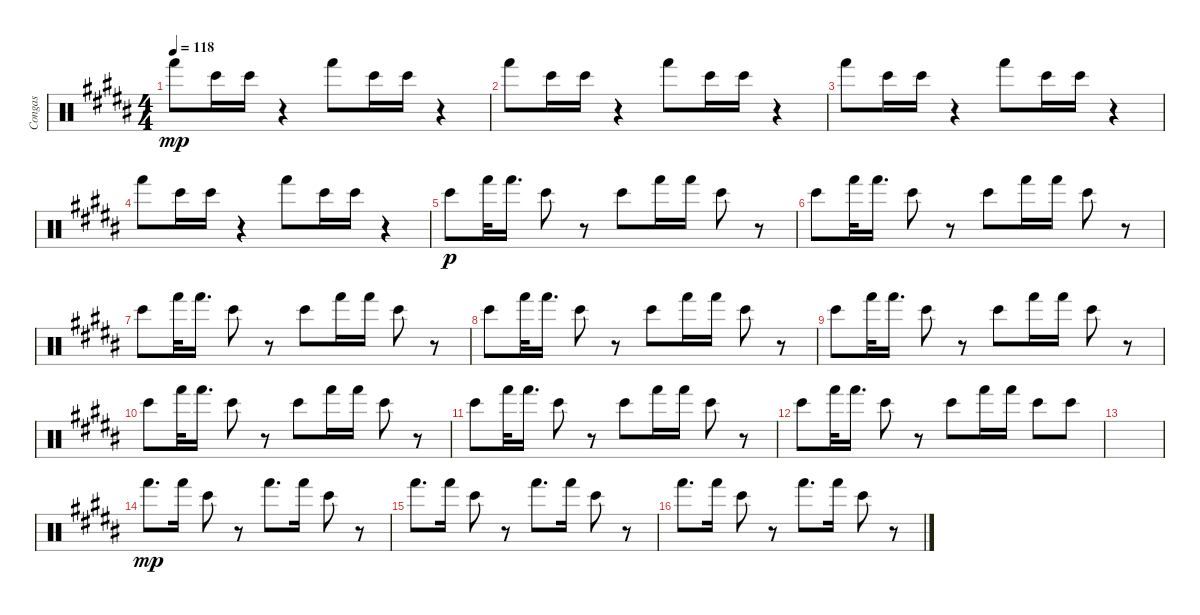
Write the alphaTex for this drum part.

\track ("Congas" "Congas") {instrument percussion}
\staff {score}
\articulation defaults
\ts (4 4)
\tempo 118
\clef neutral
\ks b "Hand (hit)".8{dy mp} "Bongo High (hit)".16 "Bongo High (hit)".16
r.4 "Hand (hit)".8 "Bongo High (hit)".16 "Bongo High (hit)".16 r.4 |
"Hand (hit)".8 "Bongo High (hit)".16 "Bongo High (hit)".16 r.4 "Hand (hit)".8 "Bongo High (hit)".16 "Bongo High (hit)".16 r.4 |
"Hand (hit)".8 "Bongo High (hit)".16 "Bongo High (hit)".16 r.4 "Hand (hit)".8 "Bongo High (hit)".16 "Bongo High (hit)".16 r.4 |
"Hand (hit)".8 "Bongo High (hit)".16 "Bongo High (hit)".16 r.4 "Hand (hit)".8 "Bongo High (hit)".16 "Bongo High (hit)".16 r.4 |
"Bongo High (hit)".8{dy p} "Hand (hit)".32 "Hand (hit)".16{d} "Bongo High (hit)".8 r.8 "Bongo High (hit)".8 "Hand (hit)".16 "Hand (hit)".16 "Bongo High (hit)".8 r.8 |
"Bongo High (hit)".8 "Hand (hit)".32 "Hand (hit)".16{d} "Bongo High (hit)".8 r.8 "Bongo High (hit)".8 "Hand (hit)".16 "Hand (hit)".16 "Bongo High (hit)".8 r.8 |
"Bongo High (hit)".8 "Hand (hit)".32 "Hand (hit)".16{d} "Bongo High (hit)".8 r.8 "Bongo High (hit)".8 "Hand (hit)".16 "Hand (hit)".16 "Bongo High (hit)".8 r.8 |
"Bongo High (hit)".8 "Hand (hit)".32 "Hand (hit)".16{d} "Bongo High (hit)".8 r.8 "Bongo High (hit)".8 "Hand (hit)".16 "Hand (hit)".16 "Bongo High (hit)".8 r.8 |
"Bongo High (hit)".8 "Hand (hit)".32 "Hand (hit)".16{d} "Bongo High (hit)".8 r.8 "Bongo High (hit)".8 "Hand (hit)".16 "Hand (hit)".16 "Bongo High (hit)".8 r.8 |
"Bongo High (hit)".8 "Hand (hit)".32 "Hand (hit)".16{d} "Bongo High (hit)".8 r.8 "Bongo High (hit)".8 "Hand (hit)".16 "Hand (hit)".16 "Bongo High (hit)".8 r.8 |
"Bongo High (hit)".8 "Hand (hit)".32 "Hand (hit)".16{d} "Bongo High (hit)".8 r.8 "Bongo High (hit)".8 "Hand (hit)".16 "Hand (hit)".16 "Bongo High (hit)".8 r.8 |
"Bongo High (hit)".8 "Hand (hit)".32 "Hand (hit)".16{d} "Bongo High (hit)".8 r.8 "Bongo High (hit)".8 "Hand (hit)".16 "Hand (hit)".16 "Bongo High (hit)".8 "Bongo High (hit)".8 |
|
"Hand (hit)".8{d dy mp} "Hand (hit)".16 "Bongo High (hit)".8 r.8 "Hand (hit)".8{d} "Hand (hit)".16 "Bongo High (hit)".8 r.8 |
"Hand (hit)".8{d} "Hand (hit)".16 "Bongo High (hit)".8 r.8 "Hand (hit)".8{d} "Hand (hit)".16 "Bongo High (hit)".8 r.8 |
"Hand (hit)".8{d} "Hand (hit)".16 "Bongo High (hit)".8 r.8 "Hand (hit)".8{d} "Hand (hit)".16 "Bongo High (hit)".8 r.8
